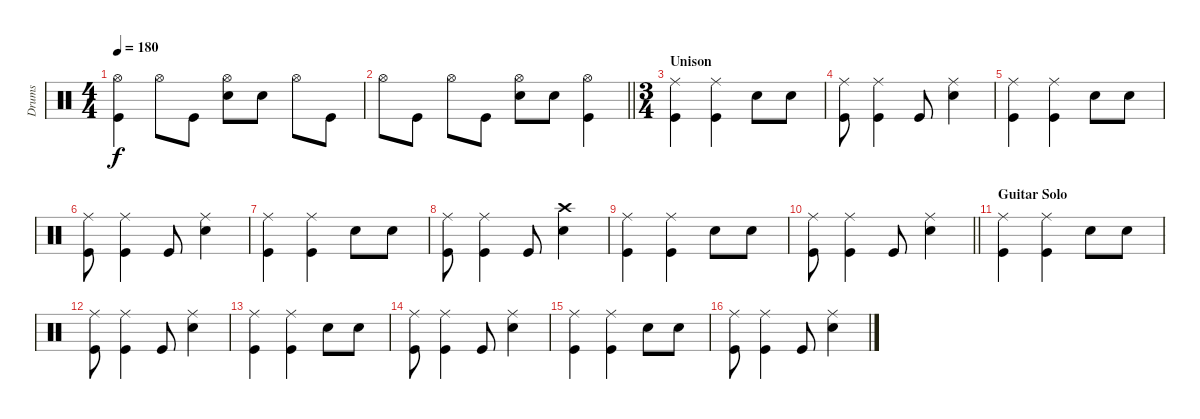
\track ("Drums" "Drums") {instrument percussion}
\staff {score}
\articulation defaults
\ts (4 4)
\tempo 180
\clef neutral
\ks c
("Hi-Hat (open)" "Kick (hit)").4{dy f} "Hi-Hat (open)".8 "Kick (hit)".8 ("Hi-Hat (open)" "Snare (hit) 2").8 "Snare (hit) 2".8 "Hi-Hat (open)".8 "Kick (hit)".8 |
\barLineRight lightlight "Hi-Hat (open)".8 "Kick (hit)".8 "Hi-Hat (open)".8 "Kick (hit)".8
("Hi-Hat (open)" "Snare (hit) 2").8 "Snare (hit) 2".8 ("Hi-Hat (open)" "Kick (hit)").4 |
\ts (3 4)
\section ("" "Unison")
("Ride (middle)" "Kick (hit)").4 ("Ride (middle)" "Kick (hit)").4 "Snare (hit) 2".8 "Snare (hit) 2".8 |
("Ride (middle)" "Kick (hit)").8 ("Ride (middle)" "Kick (hit)").4 "Kick (hit)".8 ("Ride (middle)" "Snare (hit) 2").4 |
("Ride (middle)" "Kick (hit)").4 ("Ride (middle)" "Kick (hit)").4 "Snare (hit) 2".8 "Snare (hit) 2".8 |
("Ride (middle)" "Kick (hit)").8 ("Ride (middle)" "Kick (hit)").4 "Kick (hit)".8 ("Ride (middle)" "Snare (hit) 2").4 |
("Ride (middle)" "Kick (hit)").4 ("Ride (middle)" "Kick (hit)").4 "Snare (hit) 2".8 "Snare (hit) 2".8 |
("Ride (middle)" "Kick (hit)").8 ("Ride (middle)" "Kick (hit)").4 "Kick (hit)".8 ("Crash high (hit)" "Snare (hit) 2").4 |
("Ride (middle)" "Kick (hit)").4 ("Ride (middle)" "Kick (hit)").4 "Snare (hit) 2".8 "Snare (hit) 2".8 |
\barLineRight lightlight
("Ride (middle)" "Kick (hit)").8 ("Ride (middle)" "Kick (hit)").4 "Kick (hit)".8 ("Ride (middle)" "Snare (hit) 2").4 |
\section ("" "Guitar Solo")
("Ride (middle)" "Kick (hit)").4 ("Ride (middle)" "Kick (hit)").4 "Snare (hit) 2".8 "Snare (hit) 2".8 |
("Ride (middle)" "Kick (hit)").8 ("Ride (middle)" "Kick (hit)").4 "Kick (hit)".8 ("Ride (middle)" "Snare (hit) 2").4 |
("Ride (middle)" "Kick (hit)").4 ("Ride (middle)" "Kick (hit)").4 "Snare (hit) 2".8 "Snare (hit) 2".8 |
("Ride (middle)" "Kick (hit)").8 ("Ride (middle)" "Kick (hit)").4 "Kick (hit)".8 ("Ride (middle)" "Snare (hit) 2").4 |
("Ride (middle)" "Kick (hit)").4 ("Ride (middle)" "Kick (hit)").4 "Snare (hit) 2".8 "Snare (hit) 2".8 |
("Ride (middle)" "Kick (hit)").8 ("Ride (middle)" "Kick (hit)").4 "Kick (hit)".8 ("Ride (middle)" "Snare (hit) 2").4
